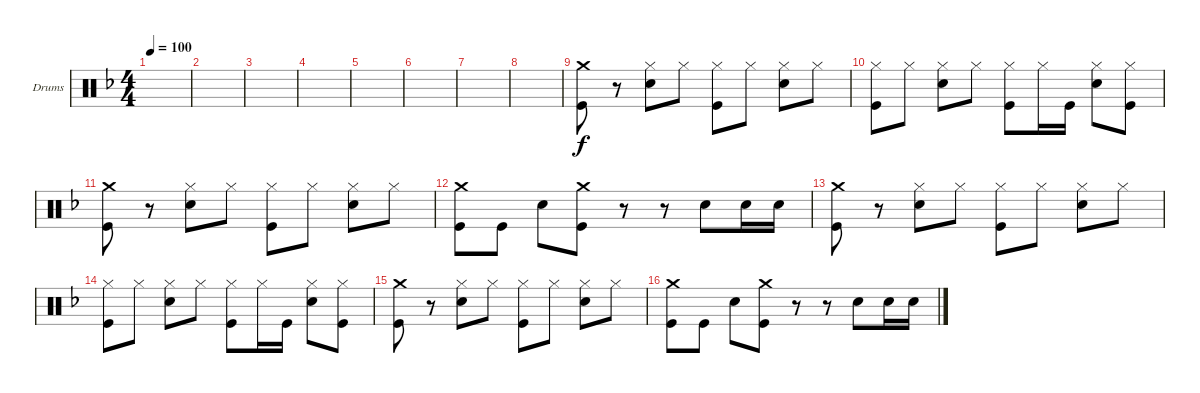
\bracketExtendMode groupsimilarinstruments
\firstSystemTrackNameOrientation horizontal
\otherSystemsTrackNameOrientation horizontal
\track ("Drums" "Drums") {instrument percussion}
\staff {score}
\articulation defaults
\ts (4 4)
\tempo 100
\clef neutral
\ks dminor
|
|
|
|
|
|
|
|
("Crash medium (hit)" "Kick (hit)").8 r.8 ("Hi-Hat (closed)" "Snare (hit) 2").8 "Hi-Hat (closed)".8 ("Hi-Hat (closed)" "Kick (hit)").8 "Hi-Hat (closed)".8 ("Hi-Hat (closed)" "Snare (hit) 2").8 "Hi-Hat (closed)".8 |
("Hi-Hat (closed)" "Kick (hit)").8 "Hi-Hat (closed)".8 ("Hi-Hat (closed)" "Snare (hit) 2").8 "Hi-Hat (closed)".8 ("Hi-Hat (closed)" "Kick (hit)").8 "Hi-Hat (closed)".16 "Kick (hit)".16 ("Hi-Hat (closed)" "Snare (hit) 2").8 ("Hi-Hat (closed)" "Kick (hit)").8 |
("Crash medium (hit)" "Kick (hit)").8 r.8 ("Hi-Hat (closed)" "Snare (hit) 2").8 "Hi-Hat (closed)".8 ("Hi-Hat (closed)" "Kick (hit)").8 "Hi-Hat (closed)".8 ("Hi-Hat (closed)" "Snare (hit) 2").8 "Hi-Hat (closed)".8 |
("Crash medium (hit)" "Kick (hit)").8 "Kick (hit)".8 "Snare (hit) 2".8 ("Crash medium (hit)" "Kick (hit)").8 r.8 r.8 "Snare (hit) 2".8 "Snare (hit) 2".16 "Snare (hit) 2".16 |
("Crash medium (hit)" "Kick (hit)").8 r.8 ("Hi-Hat (closed)" "Snare (hit) 2").8 "Hi-Hat (closed)".8 ("Hi-Hat (closed)" "Kick (hit)").8 "Hi-Hat (closed)".8 ("Hi-Hat (closed)" "Snare (hit) 2").8 "Hi-Hat (closed)".8 |
("Hi-Hat (closed)" "Kick (hit)").8 "Hi-Hat (closed)".8 ("Hi-Hat (closed)" "Snare (hit) 2").8 "Hi-Hat (closed)".8 ("Hi-Hat (closed)" "Kick (hit)").8 "Hi-Hat (closed)".16 "Kick (hit)".16 ("Hi-Hat (closed)" "Snare (hit) 2").8 ("Hi-Hat (closed)" "Kick (hit)").8 |
("Crash medium (hit)" "Kick (hit)").8 r.8 ("Hi-Hat (closed)" "Snare (hit) 2").8 "Hi-Hat (closed)".8 ("Hi-Hat (closed)" "Kick (hit)").8 "Hi-Hat (closed)".8 ("Hi-Hat (closed)" "Snare (hit) 2").8 "Hi-Hat (closed)".8 |
("Crash medium (hit)" "Kick (hit)").8 "Kick (hit)".8 "Snare (hit) 2".8 ("Crash medium (hit)" "Kick (hit)").8 r.8 r.8 "Snare (hit) 2".8 "Snare (hit) 2".16 "Snare (hit) 2".16
